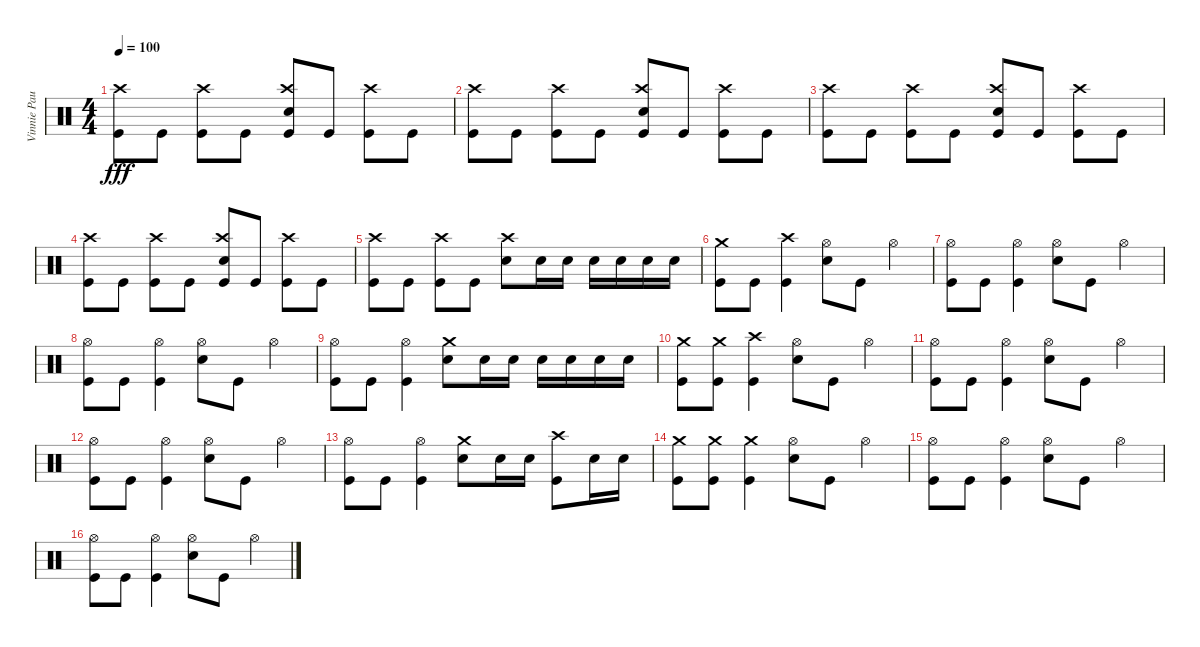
\track ("Vinnie Paul (Drums)" "Vinnie Pau") {instrument percussion}
\staff {score}
\articulation defaults
\ts (4 4)
\tempo 100
\clef neutral
\ks c
("Kick (hit)" "Crash high (hit)").8{dy fff} "Kick (hit)".8 ("Kick (hit)" "Crash high (hit)").8 "Kick (hit)".8 ("Electric Snare (hit)" "Kick (hit)" "Crash high (hit)").8 "Kick (hit)".8 ("Kick (hit)" "Crash high (hit)").8 "Kick (hit)".8 |
("Kick (hit)" "Crash high (hit)").8 "Kick (hit)".8 ("Kick (hit)" "Crash high (hit)").8 "Kick (hit)".8 ("Electric Snare (hit)" "Kick (hit)" "Crash high (hit)").8 "Kick (hit)".8 ("Kick (hit)" "Crash high (hit)").8 "Kick (hit)".8 |
("Kick (hit)" "Crash high (hit)").8 "Kick (hit)".8 ("Kick (hit)" "Crash high (hit)").8 "Kick (hit)".8 ("Electric Snare (hit)" "Kick (hit)" "Crash high (hit)").8 "Kick (hit)".8 ("Kick (hit)" "Crash high (hit)").8 "Kick (hit)".8 |
("Kick (hit)" "Crash high (hit)").8 "Kick (hit)".8 ("Kick (hit)" "Crash high (hit)").8 "Kick (hit)".8 ("Electric Snare (hit)" "Kick (hit)" "Crash high (hit)").8 "Kick (hit)".8 ("Kick (hit)" "Crash high (hit)").8 "Kick (hit)".8 |
("Kick (hit)" "Crash high (hit)").8 "Kick (hit)".8 ("Kick (hit)" "Crash high (hit)").8 "Kick (hit)".8 ("Electric Snare (hit)" "Crash high (hit)").8 "Electric Snare (hit)".16 "Electric Snare (hit)".16 "Electric Snare (hit)".16 "Electric Snare (hit)".16 "Electric Snare (hit)".16 "Electric Snare (hit)".16 |
("Kick (hit)" "Crash medium (hit)").8 "Kick (hit)".8 ("Kick (hit)" "Crash high (hit)").4 ("Hi-Hat (open)" "Electric Snare (hit)").8 "Kick (hit)".8 "Hi-Hat (open)".4 |
("Kick (hit)" "Hi-Hat (open)").8 "Kick (hit)".8 ("Kick (hit)" "Hi-Hat (open)").4 ("Electric Snare (hit)" "Hi-Hat (open)").8 "Kick (hit)".8 "Hi-Hat (open)".4 |
("Kick (hit)" "Hi-Hat (open)").8 "Kick (hit)".8 ("Kick (hit)" "Hi-Hat (open)").4 ("Electric Snare (hit)" "Hi-Hat (open)").8 "Kick (hit)".8 "Hi-Hat (open)".4 |
("Kick (hit)" "Hi-Hat (open)").8 "Kick (hit)".8 ("Kick (hit)" "Hi-Hat (open)").4 ("Electric Snare (hit)" "Crash medium (hit)").8 "Electric Snare (hit)".16 "Electric Snare (hit)".16 "Electric Snare (hit)".16 "Electric Snare (hit)".16 "Electric Snare (hit)".16 "Electric Snare (hit)".16 |
("Kick (hit)" "Crash medium (hit)").8 ("Kick (hit)" "Crash medium (hit)").8 ("Kick (hit)" "Crash high (hit)").4 ("Hi-Hat (open)" "Electric Snare (hit)").8 "Kick (hit)".8 "Hi-Hat (open)".4 |
("Kick (hit)" "Hi-Hat (open)").8 "Kick (hit)".8 ("Kick (hit)" "Hi-Hat (open)").4 ("Electric Snare (hit)" "Hi-Hat (open)").8 "Kick (hit)".8 "Hi-Hat (open)".4 |
("Kick (hit)" "Hi-Hat (open)").8 "Kick (hit)".8 ("Kick (hit)" "Hi-Hat (open)").4 ("Electric Snare (hit)" "Hi-Hat (open)").8 "Kick (hit)".8 "Hi-Hat (open)".4 |
("Kick (hit)" "Hi-Hat (open)").8 "Kick (hit)".8 ("Kick (hit)" "Hi-Hat (open)").4 ("Electric Snare (hit)" "Crash medium (hit)").8 "Electric Snare (hit)".16 "Electric Snare (hit)".16 ("Crash high (hit)" "Kick (hit)").8 "Electric Snare (hit)".16 "Electric Snare (hit)".16 |
("Kick (hit)" "Crash medium (hit)").8 ("Crash medium (hit)" "Kick (hit)").8 ("Kick (hit)" "Crash medium (hit)").4 ("Hi-Hat (open)" "Electric Snare (hit)").8 "Kick (hit)".8 "Hi-Hat (open)".4 |
("Kick (hit)" "Hi-Hat (open)").8 "Kick (hit)".8 ("Kick (hit)" "Hi-Hat (open)").4 ("Electric Snare (hit)" "Hi-Hat (open)").8 "Kick (hit)".8 "Hi-Hat (open)".4 |
("Kick (hit)" "Hi-Hat (open)").8 "Kick (hit)".8 ("Kick (hit)" "Hi-Hat (open)").4 ("Electric Snare (hit)" "Hi-Hat (open)").8 "Kick (hit)".8 "Hi-Hat (open)".4
